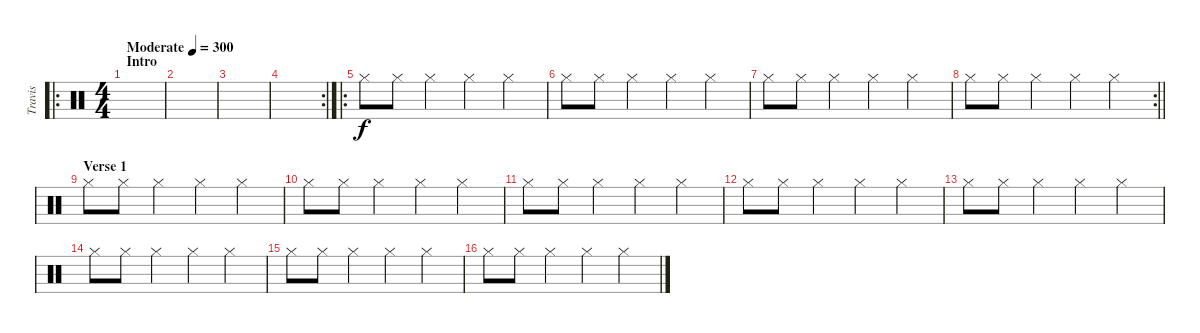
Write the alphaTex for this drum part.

\track ("Travis" "Travis") {instrument percussion}
\staff {score}
\articulation defaults
\ro
\ts (4 4)
\section ("" "Intro")
\tempo (300 "Moderate")
\clef neutral
\ks c
|
|
|
\rc 2
|
\ro "Hi-Hat (closed)".8 "Hi-Hat (closed)".8 "Hi-Hat (closed)".4 "Hi-Hat (closed)".4 "Hi-Hat (closed)".4
|
"Hi-Hat (closed)".8 "Hi-Hat (closed)".8 "Hi-Hat (closed)".4 "Hi-Hat (closed)".4 "Hi-Hat (closed)".4 |
"Hi-Hat (closed)".8 "Hi-Hat (closed)".8 "Hi-Hat (closed)".4 "Hi-Hat (closed)".4 "Hi-Hat (closed)".4 |
\rc 2
\barLineRight lightlight "Hi-Hat (closed)".8 "Hi-Hat (closed)".8 "Hi-Hat (closed)".4 "Hi-Hat (closed)".4 "Hi-Hat (closed)".4
|
\section ("" "Verse 1")
"Hi-Hat (closed)".8 "Hi-Hat (closed)".8 "Hi-Hat (closed)".4 "Hi-Hat (closed)".4 "Hi-Hat (closed)".4 |
"Hi-Hat (closed)".8 "Hi-Hat (closed)".8 "Hi-Hat (closed)".4 "Hi-Hat (closed)".4 "Hi-Hat (closed)".4 |
"Hi-Hat (closed)".8 "Hi-Hat (closed)".8 "Hi-Hat (closed)".4 "Hi-Hat (closed)".4 "Hi-Hat (closed)".4 |
"Hi-Hat (closed)".8 "Hi-Hat (closed)".8 "Hi-Hat (closed)".4 "Hi-Hat (closed)".4 "Hi-Hat (closed)".4 |
"Hi-Hat (closed)".8 "Hi-Hat (closed)".8 "Hi-Hat (closed)".4 "Hi-Hat (closed)".4 "Hi-Hat (closed)".4 |
"Hi-Hat (closed)".8 "Hi-Hat (closed)".8 "Hi-Hat (closed)".4 "Hi-Hat (closed)".4 "Hi-Hat (closed)".4 |
"Hi-Hat (closed)".8 "Hi-Hat (closed)".8 "Hi-Hat (closed)".4 "Hi-Hat (closed)".4 "Hi-Hat (closed)".4 |
"Hi-Hat (closed)".8 "Hi-Hat (closed)".8 "Hi-Hat (closed)".4 "Hi-Hat (closed)".4 "Hi-Hat (closed)".4
